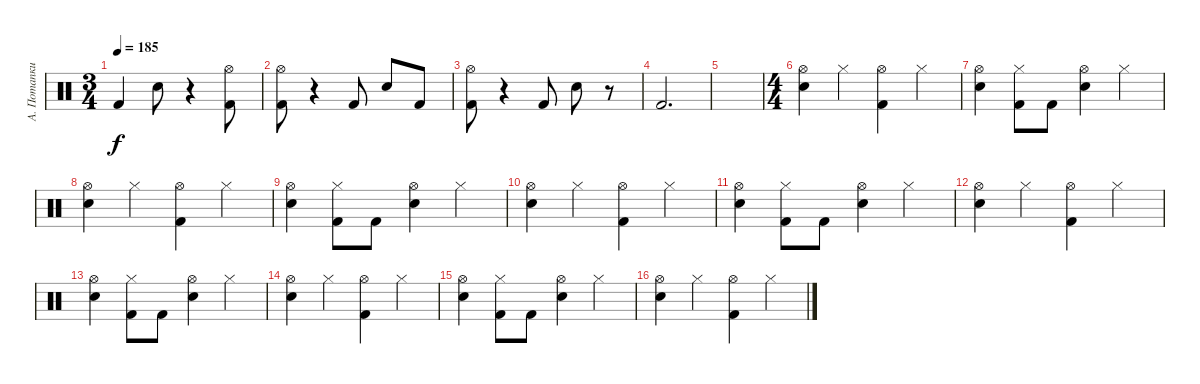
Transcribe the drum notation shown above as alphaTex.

\track ("А. Потапкин" "А. Потапки") {instrument percussion}
\staff {score}
\articulation defaults
\ts (3 4)
\tempo 185
\clef neutral
\ks c "Kick (hit) 2".4{dy f} "Electric Snare (hit)".8
r.4 ("Hi-Hat (open)" "Kick (hit) 2").8 |
("Hi-Hat (open)" "Kick (hit) 2").8 r.4 "Kick (hit) 2".8 "Electric Snare (hit)".8 "Kick (hit) 2".8 |
("Hi-Hat (open)" "Kick (hit) 2").8 r.4 "Kick (hit) 2".8 "Electric Snare (hit)".8 r.8 |
"Kick (hit) 2".2{d} |
|
\ts (4 4)
("Hi-Hat (open)" "Snare (hit) 2").4 "Hi-Hat (closed)".4 ("Hi-Hat (open)" "Kick (hit) 2").4 "Hi-Hat (closed)".4 |
("Hi-Hat (open)" "Snare (hit) 2").4 ("Hi-Hat (closed)" "Kick (hit) 2").8 "Kick (hit) 2".8 ("Hi-Hat (open)" "Snare (hit) 2").4 "Hi-Hat (closed)".4 |
("Hi-Hat (open)" "Snare (hit) 2").4 "Hi-Hat (closed)".4 ("Hi-Hat (open)" "Kick (hit) 2").4 "Hi-Hat (closed)".4 |
("Hi-Hat (open)" "Snare (hit) 2").4 ("Hi-Hat (closed)" "Kick (hit) 2").8 "Kick (hit) 2".8 ("Hi-Hat (open)" "Snare (hit) 2").4 "Hi-Hat (closed)".4 |
("Hi-Hat (open)" "Snare (hit) 2").4 "Hi-Hat (closed)".4 ("Hi-Hat (open)" "Kick (hit) 2").4 "Hi-Hat (closed)".4 |
("Hi-Hat (open)" "Snare (hit) 2").4 ("Hi-Hat (closed)" "Kick (hit) 2").8 "Kick (hit) 2".8 ("Hi-Hat (open)" "Snare (hit) 2").4 "Hi-Hat (closed)".4 |
("Hi-Hat (open)" "Snare (hit) 2").4 "Hi-Hat (closed)".4 ("Hi-Hat (open)" "Kick (hit) 2").4 "Hi-Hat (closed)".4 |
("Hi-Hat (open)" "Snare (hit) 2").4 ("Hi-Hat (closed)" "Kick (hit) 2").8 "Kick (hit) 2".8 ("Hi-Hat (open)" "Snare (hit) 2").4 "Hi-Hat (closed)".4 |
("Hi-Hat (open)" "Snare (hit) 2").4 "Hi-Hat (closed)".4 ("Hi-Hat (open)" "Kick (hit) 2").4 "Hi-Hat (closed)".4 |
("Hi-Hat (open)" "Snare (hit) 2").4 ("Hi-Hat (closed)" "Kick (hit) 2").8 "Kick (hit) 2".8 ("Hi-Hat (open)" "Snare (hit) 2").4 "Hi-Hat (closed)".4 |
("Hi-Hat (open)" "Snare (hit) 2").4 "Hi-Hat (closed)".4 ("Hi-Hat (open)" "Kick (hit) 2").4 "Hi-Hat (closed)".4
